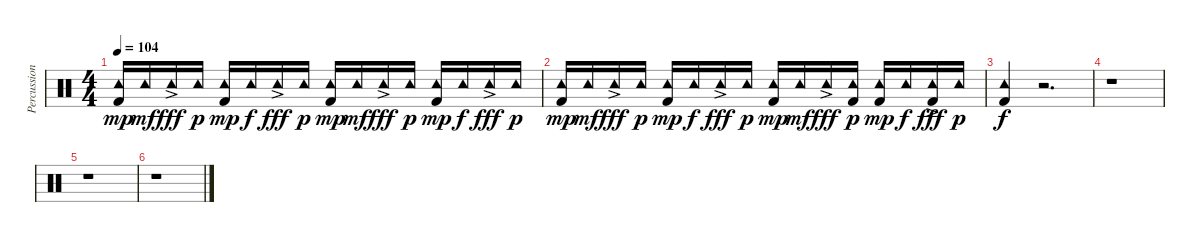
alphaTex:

\track ("Percussion" "Percussion") {instrument percussion}
\staff {score}
\articulation defaults
\ts (4 4)
\tempo 104
\clef neutral
\ks c
("Kick (hit) 2" "Tambourine (hit)").16{dy mp} "Tambourine (hit)".16{dy mf} "Tambourine (hit)"{ac}.16{dy fff} "Tambourine (hit)".16{dy p} ("Kick (hit) 2" "Tambourine (hit)").16{dy mp} "Tambourine (hit)".16{dy f} "Tambourine (hit)"{ac}.16{dy fff} "Tambourine (hit)".16{dy p} ("Kick (hit) 2" "Tambourine (hit)").16{dy mp} "Tambourine (hit)".16{dy mf} "Tambourine (hit)"{ac}.16{dy fff} "Tambourine (hit)".16{dy p} ("Kick (hit) 2" "Tambourine (hit)").16{dy mp} "Tambourine (hit)".16{dy f} "Tambourine (hit)"{ac}.16{dy fff} "Tambourine (hit)".16{dy p} |
("Kick (hit) 2" "Tambourine (hit)").16{dy mp} "Tambourine (hit)".16{dy mf} "Tambourine (hit)"{ac}.16{dy fff} "Tambourine (hit)".16{dy p} ("Kick (hit) 2" "Tambourine (hit)").16{dy mp} "Tambourine (hit)".16{dy f} "Tambourine (hit)"{ac}.16{dy fff} "Tambourine (hit)".16{dy p} ("Kick (hit) 2" "Tambourine (hit)").16{dy mp} "Tambourine (hit)".16{dy mf} "Tambourine (hit)"{ac}.16{dy fff} ("Kick (hit) 2" "Tambourine (hit)").16{dy p} ("Kick (hit) 2" "Tambourine (hit)").16{dy mp} "Tambourine (hit)".16{dy f} ("Kick (hit) 2" "Tambourine (hit)"{ac}).16{dy fff} "Tambourine (hit)".16{dy p} |
("Kick (hit) 2" "Tambourine (hit)").4{dy f} r.2{d} |
r.1 |
r.1 |
r.1
